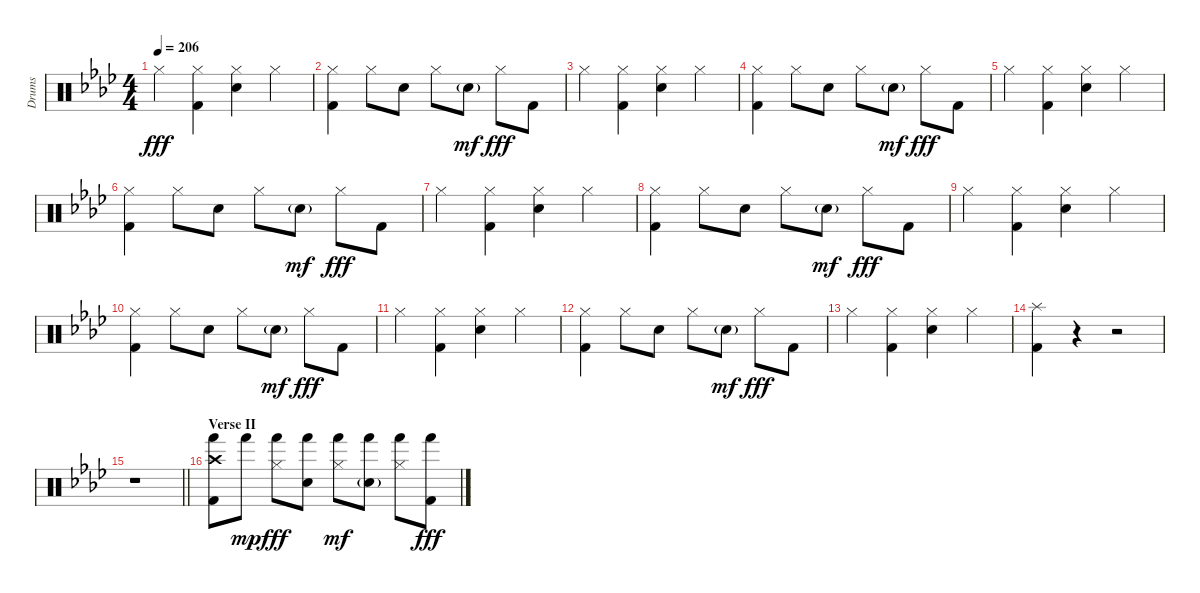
\track ("Drums" "Drums") {instrument percussion}
\staff {score}
\articulation defaults
\ts (4 4)
\tempo 206
\clef neutral
\ks ab "Hi-Hat (closed)".4{dy fff}
("Hi-Hat (closed)" "Kick (hit) 2").4 ("Hi-Hat (closed)" "Electric Snare (hit)").4 "Hi-Hat (closed)".4 |
("Hi-Hat (closed)" "Kick (hit) 2").4 "Hi-Hat (closed)".8 "Electric Snare (hit)".8 "Hi-Hat (closed)".8 "Electric Snare (hit)"{g}.8{dy mf} "Hi-Hat (closed)".8{dy fff} "Kick (hit) 2".8 |
"Hi-Hat (closed)".4 ("Hi-Hat (closed)" "Kick (hit) 2").4 ("Hi-Hat (closed)" "Electric Snare (hit)").4 "Hi-Hat (closed)".4 |
("Hi-Hat (closed)" "Kick (hit) 2").4 "Hi-Hat (closed)".8 "Electric Snare (hit)".8 "Hi-Hat (closed)".8 "Electric Snare (hit)"{g}.8{dy mf} "Hi-Hat (closed)".8{dy fff} "Kick (hit) 2".8 |
"Hi-Hat (closed)".4 ("Hi-Hat (closed)" "Kick (hit) 2").4 ("Hi-Hat (closed)" "Electric Snare (hit)").4 "Hi-Hat (closed)".4 |
("Hi-Hat (closed)" "Kick (hit) 2").4 "Hi-Hat (closed)".8 "Electric Snare (hit)".8 "Hi-Hat (closed)".8 "Electric Snare (hit)"{g}.8{dy mf} "Hi-Hat (closed)".8{dy fff} "Kick (hit) 2".8 |
"Hi-Hat (closed)".4 ("Hi-Hat (closed)" "Kick (hit) 2").4 ("Hi-Hat (closed)" "Electric Snare (hit)").4 "Hi-Hat (closed)".4 |
("Hi-Hat (closed)" "Kick (hit) 2").4 "Hi-Hat (closed)".8 "Electric Snare (hit)".8 "Hi-Hat (closed)".8 "Electric Snare (hit)"{g}.8{dy mf} "Hi-Hat (closed)".8{dy fff} "Kick (hit) 2".8 |
"Hi-Hat (closed)".4 ("Hi-Hat (closed)" "Kick (hit) 2").4 ("Hi-Hat (closed)" "Electric Snare (hit)").4 "Hi-Hat (closed)".4 |
("Hi-Hat (closed)" "Kick (hit) 2").4 "Hi-Hat (closed)".8 "Electric Snare (hit)".8 "Hi-Hat (closed)".8 "Electric Snare (hit)"{g}.8{dy mf} "Hi-Hat (closed)".8{dy fff} "Kick (hit) 2".8 |
"Hi-Hat (closed)".4 ("Hi-Hat (closed)" "Kick (hit) 2").4 ("Hi-Hat (closed)" "Electric Snare (hit)").4 "Hi-Hat (closed)".4 |
("Hi-Hat (closed)" "Kick (hit) 2").4 "Hi-Hat (closed)".8 "Electric Snare (hit)".8 "Hi-Hat (closed)".8 "Electric Snare (hit)"{g}.8{dy mf} "Hi-Hat (closed)".8{dy fff} "Kick (hit) 2".8 |
"Hi-Hat (closed)".4 ("Hi-Hat (closed)" "Kick (hit) 2").4 ("Hi-Hat (closed)" "Electric Snare (hit)").4 "Hi-Hat (closed)".4 |
("Splash (hit)" "Kick (hit) 2").4 r.4 r.2 |
\barLineRight lightlight
r.1 |
\section ("" "Verse II")
("Crash high (hit)" "Hand (hit)" "Kick (hit) 2").8 "Hand (hit)".8{dy mp} ("Hi-Hat (closed)" "Hand (hit)").8{dy fff} ("Hand (hit)" "Electric Snare (hit)").8 ("Hi-Hat (closed)" "Hand (hit)").8{dy mf} ("Hand (hit)" "Electric Snare (hit)"{g}).8 ("Hi-Hat (closed)" "Hand (hit)").8 ("Hand (hit)" "Kick (hit) 2").8{dy fff}
